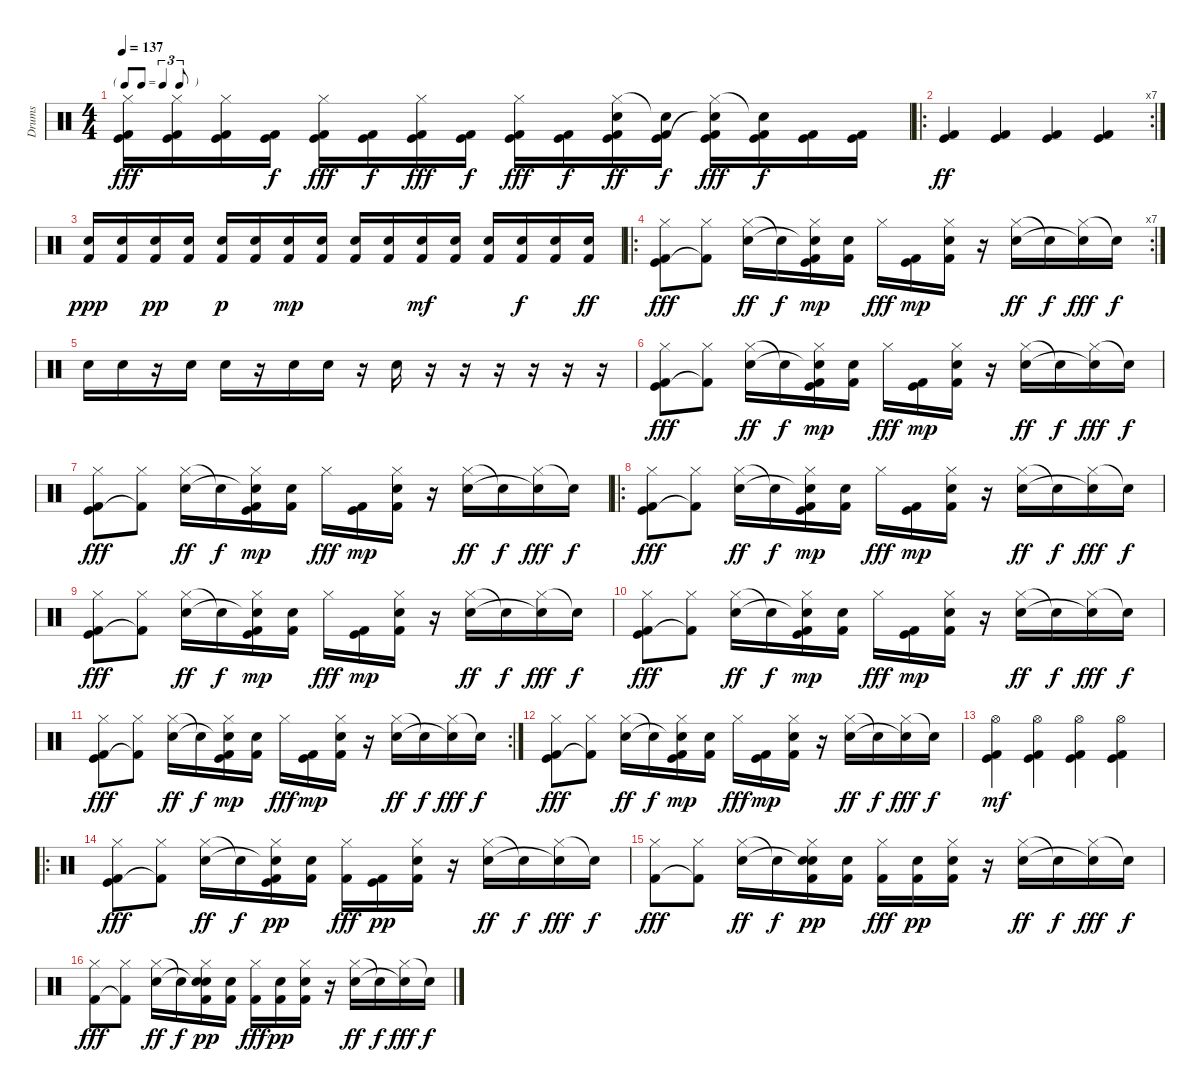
\track ("Drums" "Drums") {instrument percussion}
\staff {score}
\articulation defaults
\ts (4 4)
\tf triplet8th
\tempo 137
\clef neutral
\ks c
("Hi-Hat (closed)" "Kick (hit)" "Kick (hit) 2").16{dy fff} ("Hi-Hat (closed)" "Kick (hit)" "Kick (hit) 2").16 ("Hi-Hat (closed)" "Kick (hit)" "Kick (hit) 2").16 ("Kick (hit)" "Kick (hit) 2").16{dy f} ("Hi-Hat (closed)" "Kick (hit)" "Kick (hit) 2").16{dy fff} ("Kick (hit)" "Kick (hit) 2").16{dy f} ("Hi-Hat (closed)" "Kick (hit)" "Kick (hit) 2").16{dy fff} ("Kick (hit)" "Kick (hit) 2").16{dy f} ("Hi-Hat (closed)" "Kick (hit)" "Kick (hit) 2").16{dy fff} ("Kick (hit)" "Kick (hit) 2").16{dy f} ("Hi-Hat (closed)" "Electric Snare (hit)" "Kick (hit)" "Kick (hit) 2").16{dy ff} ("Snare (hit)"{t} "Kick (hit)" "Kick (hit) 2").16{dy f} ("Hi-Hat (closed)" "Snare (hit)"{t} "Kick (hit)" "Kick (hit) 2").16{dy fff} ("Snare (hit)"{t} "Kick (hit)" "Kick (hit) 2").16{dy f} ("Kick (hit)" "Kick (hit) 2").16 ("Kick (hit)" "Kick (hit) 2").16 |
\ro
\rc 7
("Kick (hit)" "Kick (hit) 2").4{dy ff} ("Kick (hit)" "Kick (hit) 2").4 ("Kick (hit)" "Kick (hit) 2").4 ("Kick (hit)" "Kick (hit) 2").4 |
("Electric Snare (hit)" "Kick (hit) 2").16{dy ppp} ("Electric Snare (hit)" "Kick (hit) 2").16 ("Electric Snare (hit)" "Kick (hit) 2").16{dy pp} ("Electric Snare (hit)" "Kick (hit) 2").16 ("Electric Snare (hit)" "Kick (hit) 2").16{dy p} ("Electric Snare (hit)" "Kick (hit) 2").16 ("Electric Snare (hit)" "Kick (hit) 2").16{dy mp} ("Electric Snare (hit)" "Kick (hit) 2").16 ("Electric Snare (hit)" "Kick (hit) 2").16 ("Electric Snare (hit)" "Kick (hit) 2").16 ("Electric Snare (hit)" "Kick (hit) 2").16{dy mf} ("Electric Snare (hit)" "Kick (hit) 2").16 ("Electric Snare (hit)" "Kick (hit) 2").16 ("Electric Snare (hit)" "Kick (hit) 2").16{dy f} ("Electric Snare (hit)" "Kick (hit) 2").16 ("Electric Snare (hit)" "Kick (hit) 2").16{dy ff} |
\ro
\rc 7
("Hi-Hat (closed)" "Kick (hit)" "Kick (hit) 2").8{dy fff} ("Hi-Hat (closed)" "Kick (hit) 2"{t}).8 ("Hi-Hat (closed)" "Electric Snare (hit)").16{dy ff} "Snare (hit)"{t}.16{dy f} ("Hi-Hat (closed)" "Snare (hit)"{t} "Kick (hit)" "Kick (hit) 2").16{dy mp} ("Electric Snare (hit)" "Kick (hit) 2").16 "Hi-Hat (closed)".16{dy fff} ("Kick (hit)" "Kick (hit) 2").16{dy mp} ("Hi-Hat (closed)" "Electric Snare (hit)" "Kick (hit) 2").16 r.16 ("Hi-Hat (closed)" "Electric Snare (hit)").16{dy ff} "Snare (hit)"{t}.16{dy f} ("Hi-Hat (closed)" "Snare (hit)"{t}).16{dy fff} "Snare (hit)"{t}.16{dy f} |
"Electric Snare (hit)".16 "Electric Snare (hit)".16 r.16 "Electric Snare (hit)".16 "Electric Snare (hit)".16 r.16 "Electric Snare (hit)".16 "Electric Snare (hit)".16 r.16 "Electric Snare (hit)".16 r.16 r.16 r.16 r.16 r.16 r.16 |
("Hi-Hat (closed)" "Kick (hit)" "Kick (hit) 2").8{dy fff} ("Hi-Hat (closed)" "Kick (hit) 2"{t}).8 ("Hi-Hat (closed)" "Electric Snare (hit)").16{dy ff} "Snare (hit)"{t}.16{dy f} ("Hi-Hat (closed)" "Snare (hit)"{t} "Kick (hit)" "Kick (hit) 2").16{dy mp} ("Electric Snare (hit)" "Kick (hit) 2").16 "Hi-Hat (closed)".16{dy fff} ("Kick (hit)" "Kick (hit) 2").16{dy mp} ("Hi-Hat (closed)" "Electric Snare (hit)" "Kick (hit) 2").16 r.16 ("Hi-Hat (closed)" "Electric Snare (hit)").16{dy ff} "Snare (hit)"{t}.16{dy f} ("Hi-Hat (closed)" "Snare (hit)"{t}).16{dy fff} "Snare (hit)"{t}.16{dy f} |
("Hi-Hat (closed)" "Kick (hit)" "Kick (hit) 2").8{dy fff} ("Hi-Hat (closed)" "Kick (hit) 2"{t}).8 ("Hi-Hat (closed)" "Electric Snare (hit)").16{dy ff} "Snare (hit)"{t}.16{dy f} ("Hi-Hat (closed)" "Snare (hit)"{t} "Kick (hit)" "Kick (hit) 2").16{dy mp} ("Electric Snare (hit)" "Kick (hit) 2").16 "Hi-Hat (closed)".16{dy fff} ("Kick (hit)" "Kick (hit) 2").16{dy mp} ("Hi-Hat (closed)" "Electric Snare (hit)" "Kick (hit) 2").16 r.16 ("Hi-Hat (closed)" "Electric Snare (hit)").16{dy ff} "Snare (hit)"{t}.16{dy f} ("Hi-Hat (closed)" "Snare (hit)"{t}).16{dy fff} "Snare (hit)"{t}.16{dy f} |
\ro
("Hi-Hat (closed)" "Kick (hit)" "Kick (hit) 2").8{dy fff} ("Hi-Hat (closed)" "Kick (hit) 2"{t}).8 ("Hi-Hat (closed)" "Electric Snare (hit)").16{dy ff} "Snare (hit)"{t}.16{dy f} ("Hi-Hat (closed)" "Snare (hit)"{t} "Kick (hit)" "Kick (hit) 2").16{dy mp} ("Electric Snare (hit)" "Kick (hit) 2").16 "Hi-Hat (closed)".16{dy fff} ("Kick (hit)" "Kick (hit) 2").16{dy mp} ("Hi-Hat (closed)" "Electric Snare (hit)" "Kick (hit) 2").16 r.16 ("Hi-Hat (closed)" "Electric Snare (hit)").16{dy ff} "Snare (hit)"{t}.16{dy f} ("Hi-Hat (closed)" "Snare (hit)"{t}).16{dy fff} "Snare (hit)"{t}.16{dy f} |
("Hi-Hat (closed)" "Kick (hit)" "Kick (hit) 2").8{dy fff} ("Hi-Hat (closed)" "Kick (hit) 2"{t}).8 ("Hi-Hat (closed)" "Electric Snare (hit)").16{dy ff} "Snare (hit)"{t}.16{dy f} ("Hi-Hat (closed)" "Snare (hit)"{t} "Kick (hit)" "Kick (hit) 2").16{dy mp} ("Electric Snare (hit)" "Kick (hit) 2").16 "Hi-Hat (closed)".16{dy fff} ("Kick (hit)" "Kick (hit) 2").16{dy mp} ("Hi-Hat (closed)" "Electric Snare (hit)" "Kick (hit) 2").16 r.16 ("Hi-Hat (closed)" "Electric Snare (hit)").16{dy ff} "Snare (hit)"{t}.16{dy f} ("Hi-Hat (closed)" "Snare (hit)"{t}).16{dy fff} "Snare (hit)"{t}.16{dy f} |
("Hi-Hat (closed)" "Kick (hit)" "Kick (hit) 2").8{dy fff} ("Hi-Hat (closed)" "Kick (hit) 2"{t}).8 ("Hi-Hat (closed)" "Electric Snare (hit)").16{dy ff} "Snare (hit)"{t}.16{dy f} ("Hi-Hat (closed)" "Snare (hit)"{t} "Kick (hit)" "Kick (hit) 2").16{dy mp} ("Electric Snare (hit)" "Kick (hit) 2").16 "Hi-Hat (closed)".16{dy fff} ("Kick (hit)" "Kick (hit) 2").16{dy mp} ("Hi-Hat (closed)" "Electric Snare (hit)" "Kick (hit) 2").16 r.16 ("Hi-Hat (closed)" "Electric Snare (hit)").16{dy ff} "Snare (hit)"{t}.16{dy f} ("Hi-Hat (closed)" "Snare (hit)"{t}).16{dy fff} "Snare (hit)"{t}.16{dy f} |
\rc 2
("Hi-Hat (closed)" "Kick (hit)" "Kick (hit) 2").8{dy fff} ("Hi-Hat (closed)" "Kick (hit) 2"{t}).8 ("Hi-Hat (closed)" "Electric Snare (hit)").16{dy ff} "Snare (hit)"{t}.16{dy f} ("Hi-Hat (closed)" "Snare (hit)"{t} "Kick (hit)" "Kick (hit) 2").16{dy mp} ("Electric Snare (hit)" "Kick (hit) 2").16 "Hi-Hat (closed)".16{dy fff} ("Kick (hit)" "Kick (hit) 2").16{dy mp} ("Hi-Hat (closed)" "Electric Snare (hit)" "Kick (hit) 2").16 r.16 ("Hi-Hat (closed)" "Electric Snare (hit)").16{dy ff} "Snare (hit)"{t}.16{dy f} ("Hi-Hat (closed)" "Snare (hit)"{t}).16{dy fff} "Snare (hit)"{t}.16{dy f} |
("Hi-Hat (closed)" "Kick (hit)" "Kick (hit) 2").8{dy fff} ("Hi-Hat (closed)" "Kick (hit) 2"{t}).8 ("Hi-Hat (closed)" "Electric Snare (hit)").16{dy ff} "Snare (hit)"{t}.16{dy f} ("Hi-Hat (closed)" "Snare (hit)"{t} "Kick (hit)" "Kick (hit) 2").16{dy mp} ("Electric Snare (hit)" "Kick (hit) 2").16 "Hi-Hat (closed)".16{dy fff} ("Kick (hit)" "Kick (hit) 2").16{dy mp} ("Hi-Hat (closed)" "Electric Snare (hit)" "Kick (hit) 2").16 r.16 ("Hi-Hat (closed)" "Electric Snare (hit)").16{dy ff} "Snare (hit)"{t}.16{dy f} ("Hi-Hat (closed)" "Snare (hit)"{t}).16{dy fff} "Snare (hit)"{t}.16{dy f} |
("Hi-Hat (open)" "Kick (hit)" "Kick (hit) 2").4{dy mf} ("Hi-Hat (open)" "Kick (hit)" "Kick (hit) 2").4 ("Hi-Hat (open)" "Kick (hit)" "Kick (hit) 2").4 ("Hi-Hat (open)" "Kick (hit)" "Kick (hit) 2").4 |
\ro
("Hi-Hat (closed)" "Kick (hit)" "Kick (hit) 2").8{dy fff} ("Hi-Hat (closed)" "Kick (hit) 2"{t}).8 ("Hi-Hat (closed)" "Electric Snare (hit)").16{dy ff} "Snare (hit)"{t}.16{dy f} ("Hi-Hat (closed)" "Snare (hit)"{t} "Kick (hit)" "Kick (hit) 2").16{dy pp} ("Electric Snare (hit)" "Kick (hit) 2").16 ("Hi-Hat (closed)" "Kick (hit) 2").16{dy fff} ("Kick (hit)" "Kick (hit) 2").16{dy pp} ("Hi-Hat (closed)" "Electric Snare (hit)" "Kick (hit) 2").16 r.16 ("Hi-Hat (closed)" "Electric Snare (hit)").16{dy ff} "Snare (hit)"{t}.16{dy f} ("Hi-Hat (closed)" "Snare (hit)"{t}).16{dy fff} "Snare (hit)"{t}.16{dy f} |
("Hi-Hat (closed)" "Kick (hit) 2").8{dy fff} ("Hi-Hat (closed)" "Kick (hit) 2"{t}).8 ("Hi-Hat (closed)" "Electric Snare (hit)").16{dy ff} "Snare (hit)"{t}.16{dy f} ("Hi-Hat (closed)" "Snare (hit)"{t} "Electric Snare (hit)" "Kick (hit) 2").16{dy pp} ("Electric Snare (hit)" "Kick (hit) 2").16 ("Hi-Hat (closed)" "Kick (hit) 2").16{dy fff} ("Electric Snare (hit)" "Kick (hit) 2").16{dy pp} ("Hi-Hat (closed)" "Electric Snare (hit)" "Kick (hit) 2").16 r.16 ("Hi-Hat (closed)" "Electric Snare (hit)").16{dy ff} "Snare (hit)"{t}.16{dy f} ("Hi-Hat (closed)" "Snare (hit)"{t}).16{dy fff} "Snare (hit)"{t}.16{dy f} |
("Hi-Hat (closed)" "Kick (hit) 2").8{dy fff} ("Hi-Hat (closed)" "Kick (hit) 2"{t}).8 ("Hi-Hat (closed)" "Electric Snare (hit)").16{dy ff} "Snare (hit)"{t}.16{dy f} ("Hi-Hat (closed)" "Snare (hit)"{t} "Electric Snare (hit)" "Kick (hit) 2").16{dy pp} ("Electric Snare (hit)" "Kick (hit) 2").16 ("Hi-Hat (closed)" "Kick (hit) 2").16{dy fff} ("Electric Snare (hit)" "Kick (hit) 2").16{dy pp} ("Hi-Hat (closed)" "Electric Snare (hit)" "Kick (hit) 2").16 r.16 ("Hi-Hat (closed)" "Electric Snare (hit)").16{dy ff} "Snare (hit)"{t}.16{dy f} ("Hi-Hat (closed)" "Snare (hit)"{t}).16{dy fff} "Snare (hit)"{t}.16{dy f}
